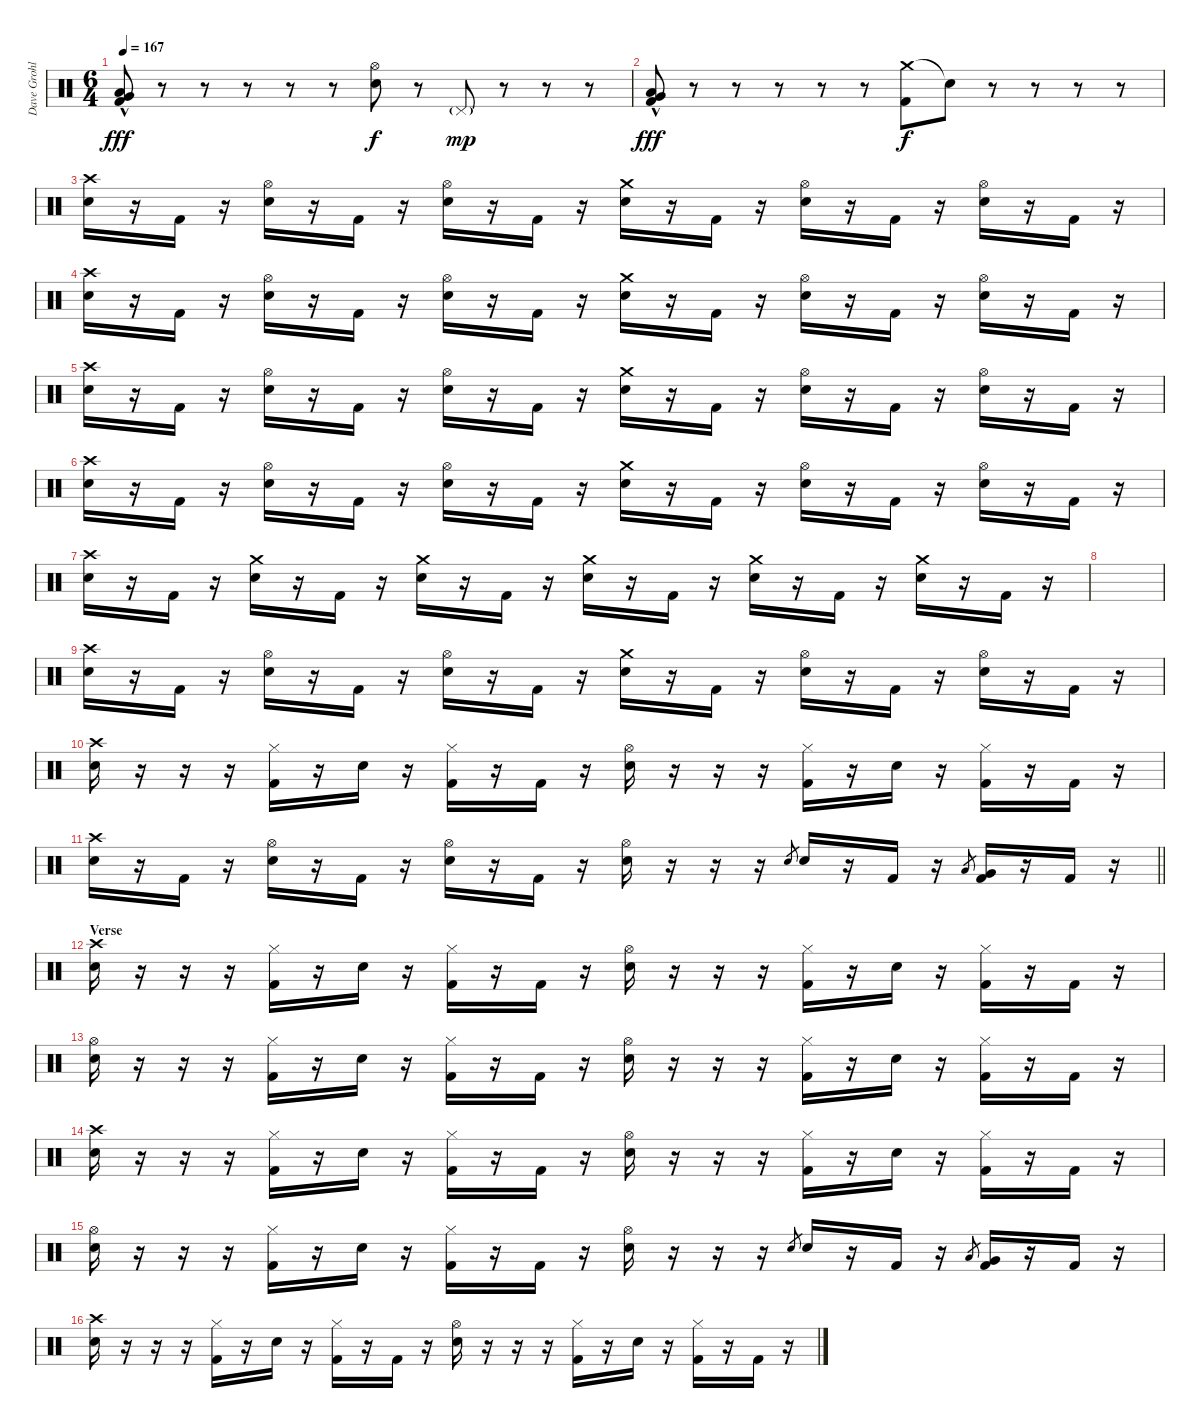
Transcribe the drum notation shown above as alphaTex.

\track ("Dave Grohl" "Dave Grohl") {instrument percussion}
\staff {score}
\articulation defaults
\ts (6 4)
\tempo 167
\clef neutral
\ks c
("Very Low Tom (hit)"{hac} "Low Tom (hit)"{hac} "Kick (hit) 2"{hac}).8{dy fff} r.8 r.8 r.8 r.8 r.8 ("Hi-Hat (open)" "Electric Snare (hit)").8{dy f} r.8 "Pedal Hi-Hat (hit)"{g}.8{dy mp} r.8 r.8 r.8 |
("Very Low Tom (hit)"{hac} "Low Tom (hit)"{hac} "Kick (hit) 2"{hac}).8{dy fff} r.8 r.8 r.8 r.8 r.8 ("Crash medium (hit)" "Kick (hit) 2").8{dy f volume 3} "Snare (hit)"{t}.8 r.8 r.8 r.8 r.8 |
("Crash high (hit)" "Electric Snare (hit)").16{volume 14} r.16 "Kick (hit) 2".16 r.16 ("Hi-Hat (open)" "Electric Snare (hit)").16 r.16 "Kick (hit) 2".16 r.16 ("Hi-Hat (open)" "Electric Snare (hit)").16 r.16 "Kick (hit) 2".16 r.16 ("Crash medium (hit)" "Electric Snare (hit)").16 r.16 "Kick (hit) 2".16 r.16 ("Hi-Hat (open)" "Electric Snare (hit)").16 r.16 "Kick (hit) 2".16 r.16 ("Hi-Hat (open)" "Electric Snare (hit)").16 r.16 "Kick (hit) 2".16 r.16 |
("Crash high (hit)" "Electric Snare (hit)").16 r.16 "Kick (hit) 2".16 r.16 ("Hi-Hat (open)" "Electric Snare (hit)").16 r.16 "Kick (hit) 2".16 r.16 ("Hi-Hat (open)" "Electric Snare (hit)").16 r.16 "Kick (hit) 2".16 r.16 ("Crash medium (hit)" "Electric Snare (hit)").16 r.16 "Kick (hit) 2".16 r.16 ("Hi-Hat (open)" "Electric Snare (hit)").16 r.16 "Kick (hit) 2".16 r.16 ("Hi-Hat (open)" "Electric Snare (hit)").16 r.16 "Kick (hit) 2".16 r.16 |
("Crash high (hit)" "Electric Snare (hit)").16 r.16 "Kick (hit) 2".16 r.16 ("Hi-Hat (open)" "Electric Snare (hit)").16 r.16 "Kick (hit) 2".16 r.16 ("Hi-Hat (open)" "Electric Snare (hit)").16 r.16 "Kick (hit) 2".16 r.16 ("Crash medium (hit)" "Electric Snare (hit)").16 r.16 "Kick (hit) 2".16 r.16 ("Hi-Hat (open)" "Electric Snare (hit)").16 r.16 "Kick (hit) 2".16 r.16 ("Hi-Hat (open)" "Electric Snare (hit)").16 r.16 "Kick (hit) 2".16 r.16 |
("Crash high (hit)" "Electric Snare (hit)").16 r.16 "Kick (hit) 2".16 r.16 ("Hi-Hat (open)" "Electric Snare (hit)").16 r.16 "Kick (hit) 2".16 r.16 ("Hi-Hat (open)" "Electric Snare (hit)").16 r.16 "Kick (hit) 2".16 r.16 ("Crash medium (hit)" "Electric Snare (hit)").16 r.16 "Kick (hit) 2".16 r.16 ("Hi-Hat (open)" "Electric Snare (hit)").16 r.16 "Kick (hit) 2".16 r.16 ("Hi-Hat (open)" "Electric Snare (hit)").16 r.16 "Kick (hit) 2".16 r.16 |
("Crash high (hit)" "Electric Snare (hit)").16 r.16 "Kick (hit) 2".16 r.16 ("Crash medium (hit)" "Electric Snare (hit)").16 r.16 "Kick (hit) 2".16 r.16 ("Crash medium (hit)" "Electric Snare (hit)").16 r.16 "Kick (hit) 2".16 r.16 ("Crash medium (hit)" "Electric Snare (hit)").16 r.16 "Kick (hit) 2".16 r.16 ("Crash medium (hit)" "Electric Snare (hit)").16 r.16 "Kick (hit) 2".16 r.16 ("Crash medium (hit)" "Electric Snare (hit)").16 r.16 "Kick (hit) 2".16 r.16 |
|
("Crash high (hit)" "Electric Snare (hit)").16 r.16 "Kick (hit) 2".16 r.16 ("Hi-Hat (open)" "Electric Snare (hit)").16 r.16 "Kick (hit) 2".16 r.16 ("Hi-Hat (open)" "Electric Snare (hit)").16 r.16 "Kick (hit) 2".16 r.16 ("Crash medium (hit)" "Electric Snare (hit)").16 r.16 "Kick (hit) 2".16 r.16 ("Hi-Hat (open)" "Electric Snare (hit)").16 r.16 "Kick (hit) 2".16 r.16 ("Hi-Hat (open)" "Electric Snare (hit)").16 r.16 "Kick (hit) 2".16 r.16 |
("Crash high (hit)" "Electric Snare (hit)").16 r.16 r.16 r.16 ("Hi-Hat (closed)" "Kick (hit) 2").16 r.16 "Electric Snare (hit)".16 r.16 ("Hi-Hat (closed)" "Kick (hit) 2").16 r.16 "Kick (hit) 2".16 r.16 ("Hi-Hat (open)" "Electric Snare (hit)").16 r.16 r.16 r.16 ("Hi-Hat (closed)" "Kick (hit) 2").16 r.16 "Electric Snare (hit)".16 r.16 ("Hi-Hat (closed)" "Kick (hit) 2").16 r.16 "Kick (hit) 2".16 r.16 |
\barLineRight lightlight
("Crash high (hit)" "Electric Snare (hit)").16 r.16 "Kick (hit) 2".16 r.16 ("Hi-Hat (open)" "Electric Snare (hit)").16 r.16 "Kick (hit) 2".16 r.16 ("Hi-Hat (open)" "Electric Snare (hit)").16 r.16 "Kick (hit) 2".16 r.16 ("Hi-Hat (open)" "Electric Snare (hit)").16 r.16 r.16 r.16 "Electric Snare (hit)".8{gr} "Electric Snare (hit)".16 r.16 "Kick (hit) 2".16 r.16 "Low Tom (hit)".8{gr} ("Very Low Tom (hit)" "Kick (hit) 2").16 r.16 "Kick (hit) 2".16 r.16 |
\section ("" "Verse")
("Crash high (hit)" "Electric Snare (hit)").16 r.16 r.16 r.16 ("Hi-Hat (closed)" "Kick (hit) 2").16 r.16 "Electric Snare (hit)".16 r.16 ("Hi-Hat (closed)" "Kick (hit) 2").16 r.16 "Kick (hit) 2".16 r.16 ("Hi-Hat (open)" "Electric Snare (hit)").16 r.16 r.16 r.16 ("Hi-Hat (closed)" "Kick (hit) 2").16 r.16 "Electric Snare (hit)".16 r.16 ("Hi-Hat (closed)" "Kick (hit) 2").16 r.16 "Kick (hit) 2".16 r.16 |
("Hi-Hat (open)" "Electric Snare (hit)").16 r.16 r.16 r.16 ("Hi-Hat (closed)" "Kick (hit) 2").16 r.16 "Electric Snare (hit)".16 r.16 ("Hi-Hat (closed)" "Kick (hit) 2").16 r.16 "Kick (hit) 2".16 r.16 ("Hi-Hat (open)" "Electric Snare (hit)").16 r.16 r.16 r.16 ("Hi-Hat (closed)" "Kick (hit) 2").16 r.16 "Electric Snare (hit)".16 r.16 ("Hi-Hat (closed)" "Kick (hit) 2").16 r.16 "Kick (hit) 2".16 r.16 |
("Crash high (hit)" "Electric Snare (hit)").16 r.16 r.16 r.16 ("Hi-Hat (closed)" "Kick (hit) 2").16 r.16 "Electric Snare (hit)".16 r.16 ("Hi-Hat (closed)" "Kick (hit) 2").16 r.16 "Kick (hit) 2".16 r.16 ("Hi-Hat (open)" "Electric Snare (hit)").16 r.16 r.16 r.16 ("Hi-Hat (closed)" "Kick (hit) 2").16 r.16 "Electric Snare (hit)".16 r.16 ("Hi-Hat (closed)" "Kick (hit) 2").16 r.16 "Kick (hit) 2".16 r.16 |
("Hi-Hat (open)" "Electric Snare (hit)").16 r.16 r.16 r.16 ("Hi-Hat (closed)" "Kick (hit) 2").16 r.16 "Electric Snare (hit)".16 r.16 ("Hi-Hat (closed)" "Kick (hit) 2").16 r.16 "Kick (hit) 2".16 r.16 ("Hi-Hat (open)" "Electric Snare (hit)").16 r.16 r.16 r.16 "Electric Snare (hit)".8{gr} "Electric Snare (hit)".16 r.16 "Kick (hit) 2".16 r.16 "Low Tom (hit)".8{gr} ("Very Low Tom (hit)" "Kick (hit) 2").16 r.16 "Kick (hit) 2".16 r.16 |
("Crash high (hit)" "Electric Snare (hit)").16 r.16 r.16 r.16 ("Hi-Hat (closed)" "Kick (hit) 2").16 r.16 "Electric Snare (hit)".16 r.16 ("Hi-Hat (closed)" "Kick (hit) 2").16 r.16 "Kick (hit) 2".16 r.16 ("Hi-Hat (open)" "Electric Snare (hit)").16 r.16 r.16 r.16 ("Hi-Hat (closed)" "Kick (hit) 2").16 r.16 "Electric Snare (hit)".16 r.16 ("Hi-Hat (closed)" "Kick (hit) 2").16 r.16 "Kick (hit) 2".16 r.16
